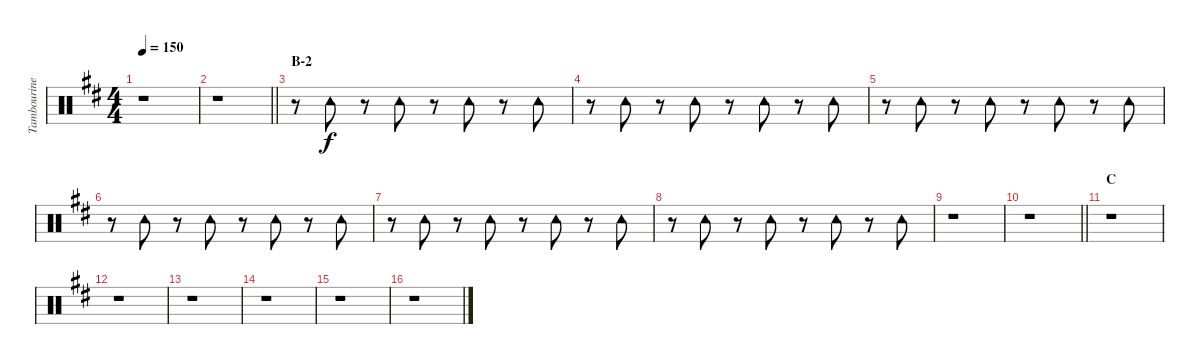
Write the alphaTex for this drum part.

\track ("Tambourine" "Tambourine") {instrument percussion}
\staff {score}
\articulation defaults
\ts (4 4)
\tempo 150
\clef neutral
\ks d
r.1{dy f} |
\barLineRight lightlight
r.1 |
\section ("" "B-2")
r.8 "Tambourine (hit)".8 r.8 "Tambourine (hit)".8 r.8 "Tambourine (hit)".8 r.8 "Tambourine (hit)".8 |
r.8 "Tambourine (hit)".8 r.8 "Tambourine (hit)".8 r.8 "Tambourine (hit)".8 r.8 "Tambourine (hit)".8 |
r.8 "Tambourine (hit)".8 r.8 "Tambourine (hit)".8 r.8 "Tambourine (hit)".8 r.8 "Tambourine (hit)".8 |
r.8 "Tambourine (hit)".8 r.8 "Tambourine (hit)".8 r.8 "Tambourine (hit)".8 r.8 "Tambourine (hit)".8 |
r.8 "Tambourine (hit)".8 r.8 "Tambourine (hit)".8 r.8 "Tambourine (hit)".8 r.8 "Tambourine (hit)".8 |
r.8 "Tambourine (hit)".8 r.8 "Tambourine (hit)".8 r.8 "Tambourine (hit)".8 r.8 "Tambourine (hit)".8 |
r.1 |
\barLineRight lightlight
r.1 |
\section ("" "C")
r.1 |
r.1 |
r.1 |
r.1 |
r.1 |
r.1
